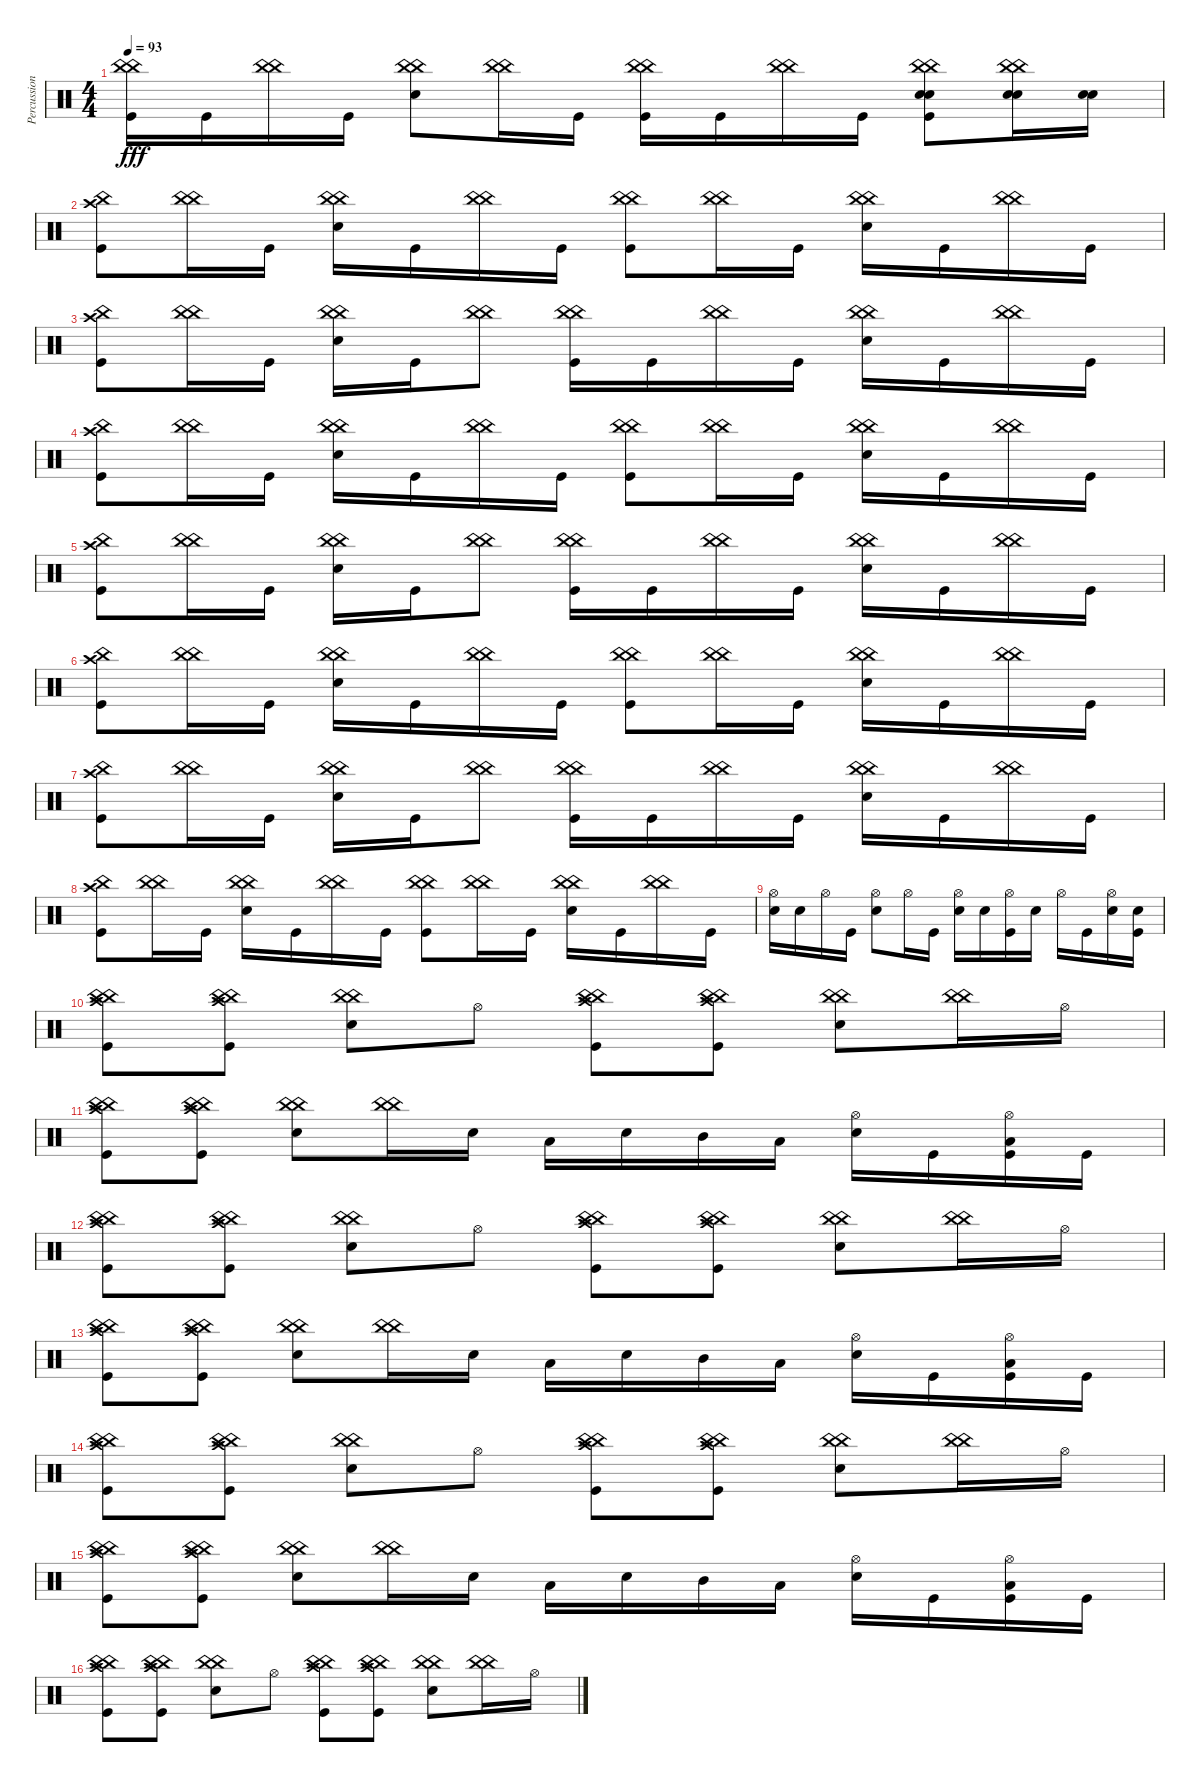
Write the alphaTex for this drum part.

\track ("Percussion" "Percussion") {instrument percussion}
\staff {score}
\articulation defaults
\ts (4 4)
\tempo 93
\clef neutral
\ks c
("China (hit)" "China (hit)" "Kick (hit)").16{dy fff} "Kick (hit)".16 ("China (hit)" "China (hit)").16 "Kick (hit)".16 ("China (hit)" "China (hit)" "Snare (hit) 2").8 ("China (hit)" "China (hit)").16 "Kick (hit)".16 ("China (hit)" "China (hit)" "Kick (hit)").16 "Kick (hit)".16 ("China (hit)" "China (hit)").16 "Kick (hit)".16 ("China (hit)" "China (hit)" "Snare (hit) 2" "Snare (hit) 2" "Kick (hit)").8 ("China (hit)" "China (hit)" "Snare (hit) 2" "Snare (hit) 2").16 ("Snare (hit) 2" "Snare (hit) 2").16 |
("China (hit)" "Crash high (hit)" "Kick (hit)").8 ("China (hit)" "China (hit)").16 "Kick (hit)".16 ("China (hit)" "China (hit)" "Snare (hit) 2").16 "Kick (hit)".16 ("China (hit)" "China (hit)").16 "Kick (hit)".16 ("China (hit)" "China (hit)" "Kick (hit)").8 ("China (hit)" "China (hit)").16 "Kick (hit)".16 ("China (hit)" "China (hit)" "Snare (hit) 2").16 "Kick (hit)".16 ("China (hit)" "China (hit)").16 "Kick (hit)".16 |
("China (hit)" "Crash high (hit)" "Kick (hit)").8 ("China (hit)" "China (hit)").16 "Kick (hit)".16 ("China (hit)" "China (hit)" "Snare (hit) 2").16 "Kick (hit)".16 ("China (hit)" "China (hit)").8 ("China (hit)" "China (hit)" "Kick (hit)").16 "Kick (hit)".16 ("China (hit)" "China (hit)").16 "Kick (hit)".16 ("China (hit)" "China (hit)" "Snare (hit) 2").16 "Kick (hit)".16 ("China (hit)" "China (hit)").16 "Kick (hit)".16 |
("China (hit)" "Crash high (hit)" "Kick (hit)").8 ("China (hit)" "China (hit)").16 "Kick (hit)".16 ("China (hit)" "China (hit)" "Snare (hit) 2").16 "Kick (hit)".16 ("China (hit)" "China (hit)").16 "Kick (hit)".16 ("China (hit)" "China (hit)" "Kick (hit)").8 ("China (hit)" "China (hit)").16 "Kick (hit)".16 ("China (hit)" "China (hit)" "Snare (hit) 2").16 "Kick (hit)".16 ("China (hit)" "China (hit)").16 "Kick (hit)".16 |
("China (hit)" "Crash high (hit)" "Kick (hit)").8 ("China (hit)" "China (hit)").16 "Kick (hit)".16 ("China (hit)" "China (hit)" "Snare (hit) 2").16 "Kick (hit)".16 ("China (hit)" "China (hit)").8 ("China (hit)" "China (hit)" "Kick (hit)").16 "Kick (hit)".16 ("China (hit)" "China (hit)").16 "Kick (hit)".16 ("China (hit)" "China (hit)" "Snare (hit) 2").16 "Kick (hit)".16 ("China (hit)" "China (hit)").16 "Kick (hit)".16 |
("China (hit)" "Crash high (hit)" "Kick (hit)").8 ("China (hit)" "China (hit)").16 "Kick (hit)".16 ("China (hit)" "China (hit)" "Snare (hit) 2").16 "Kick (hit)".16 ("China (hit)" "China (hit)").16 "Kick (hit)".16 ("China (hit)" "China (hit)" "Kick (hit)").8 ("China (hit)" "China (hit)").16 "Kick (hit)".16 ("China (hit)" "China (hit)" "Snare (hit) 2").16 "Kick (hit)".16 ("China (hit)" "China (hit)").16 "Kick (hit)".16 |
("China (hit)" "Crash high (hit)" "Kick (hit)").8 ("China (hit)" "China (hit)").16 "Kick (hit)".16 ("China (hit)" "China (hit)" "Snare (hit) 2").16 "Kick (hit)".16 ("China (hit)" "China (hit)").8 ("China (hit)" "China (hit)" "Kick (hit)").16 "Kick (hit)".16 ("China (hit)" "China (hit)").16 "Kick (hit)".16 ("China (hit)" "China (hit)" "Snare (hit) 2").16 "Kick (hit)".16 ("China (hit)" "China (hit)").16 "Kick (hit)".16 |
("China (hit)" "Crash high (hit)" "Kick (hit)").8 ("China (hit)" "China (hit)").16 "Kick (hit)".16 ("China (hit)" "China (hit)" "Snare (hit) 2").16 "Kick (hit)".16 ("China (hit)" "China (hit)").16 "Kick (hit)".16 ("China (hit)" "China (hit)" "Kick (hit)").8 ("China (hit)" "China (hit)").16 "Kick (hit)".16 ("China (hit)" "China (hit)" "Snare (hit) 2").16 "Kick (hit)".16 ("China (hit)" "China (hit)").16 "Kick (hit)".16 |
("Hi-Hat (open)" "Snare (hit) 2").16 "Snare (hit) 2".16 "Hi-Hat (open)".16 "Kick (hit)".16 ("Hi-Hat (open)" "Snare (hit) 2").8 "Hi-Hat (open)".16 "Kick (hit)".16 ("Hi-Hat (open)" "Snare (hit) 2").16 "Snare (hit) 2".16 ("Hi-Hat (open)" "Kick (hit)").16 "Snare (hit) 2".16 "Hi-Hat (open)".16 "Kick (hit)".16 ("Hi-Hat (open)" "Snare (hit) 2").16 ("Snare (hit) 2" "Kick (hit)").16 |
("China (hit)" "Crash high (hit)" "China (hit)" "Kick (hit)").8 ("China (hit)" "Crash high (hit)" "China (hit)" "Kick (hit)").8 ("China (hit)" "China (hit)" "Snare (hit) 2").8 "Hi-Hat (open)".8 ("China (hit)" "Crash high (hit)" "China (hit)" "Kick (hit)").8 ("China (hit)" "Crash high (hit)" "China (hit)" "Kick (hit)").8 ("China (hit)" "China (hit)" "Snare (hit) 2").8 ("China (hit)" "China (hit)").16 "Hi-Hat (open)".16 |
("China (hit)" "Crash high (hit)" "China (hit)" "Kick (hit)").8 ("China (hit)" "Crash high (hit)" "China (hit)" "Kick (hit)").8 ("China (hit)" "China (hit)" "Snare (hit) 2").8 ("China (hit)" "China (hit)").16 "Snare (hit) 2".16 "Low Tom (hit)".16 "Snare (hit) 2".16 "Mid Tom (hit)".16 "Low Tom (hit)".16 ("Hi-Hat (open)" "Snare (hit) 2").16 "Kick (hit)".16 ("Hi-Hat (open)" "Low Tom (hit)" "Kick (hit)").16 "Kick (hit)".16 |
("China (hit)" "Crash high (hit)" "China (hit)" "Kick (hit)").8 ("China (hit)" "Crash high (hit)" "China (hit)" "Kick (hit)").8 ("China (hit)" "China (hit)" "Snare (hit) 2").8 "Hi-Hat (open)".8 ("China (hit)" "Crash high (hit)" "China (hit)" "Kick (hit)").8 ("China (hit)" "Crash high (hit)" "China (hit)" "Kick (hit)").8 ("China (hit)" "China (hit)" "Snare (hit) 2").8 ("China (hit)" "China (hit)").16 "Hi-Hat (open)".16 |
("China (hit)" "Crash high (hit)" "China (hit)" "Kick (hit)").8 ("China (hit)" "Crash high (hit)" "China (hit)" "Kick (hit)").8 ("China (hit)" "China (hit)" "Snare (hit) 2").8 ("China (hit)" "China (hit)").16 "Snare (hit) 2".16 "Low Tom (hit)".16 "Snare (hit) 2".16 "Mid Tom (hit)".16 "Low Tom (hit)".16 ("Hi-Hat (open)" "Snare (hit) 2").16 "Kick (hit)".16 ("Hi-Hat (open)" "Low Tom (hit)" "Kick (hit)").16 "Kick (hit)".16 |
("China (hit)" "Crash high (hit)" "China (hit)" "Kick (hit)").8 ("China (hit)" "Crash high (hit)" "China (hit)" "Kick (hit)").8 ("China (hit)" "China (hit)" "Snare (hit) 2").8 "Hi-Hat (open)".8 ("China (hit)" "Crash high (hit)" "China (hit)" "Kick (hit)").8 ("China (hit)" "Crash high (hit)" "China (hit)" "Kick (hit)").8 ("China (hit)" "China (hit)" "Snare (hit) 2").8 ("China (hit)" "China (hit)").16 "Hi-Hat (open)".16 |
("China (hit)" "Crash high (hit)" "China (hit)" "Kick (hit)").8 ("China (hit)" "Crash high (hit)" "China (hit)" "Kick (hit)").8 ("China (hit)" "China (hit)" "Snare (hit) 2").8 ("China (hit)" "China (hit)").16 "Snare (hit) 2".16 "Low Tom (hit)".16 "Snare (hit) 2".16 "Mid Tom (hit)".16 "Low Tom (hit)".16 ("Hi-Hat (open)" "Snare (hit) 2").16 "Kick (hit)".16 ("Hi-Hat (open)" "Low Tom (hit)" "Kick (hit)").16 "Kick (hit)".16 |
("China (hit)" "Crash high (hit)" "China (hit)" "Kick (hit)").8 ("China (hit)" "Crash high (hit)" "China (hit)" "Kick (hit)").8 ("China (hit)" "China (hit)" "Snare (hit) 2").8 "Hi-Hat (open)".8 ("China (hit)" "Crash high (hit)" "China (hit)" "Kick (hit)").8 ("China (hit)" "Crash high (hit)" "China (hit)" "Kick (hit)").8 ("China (hit)" "China (hit)" "Snare (hit) 2").8 ("China (hit)" "China (hit)").16 "Hi-Hat (open)".16
